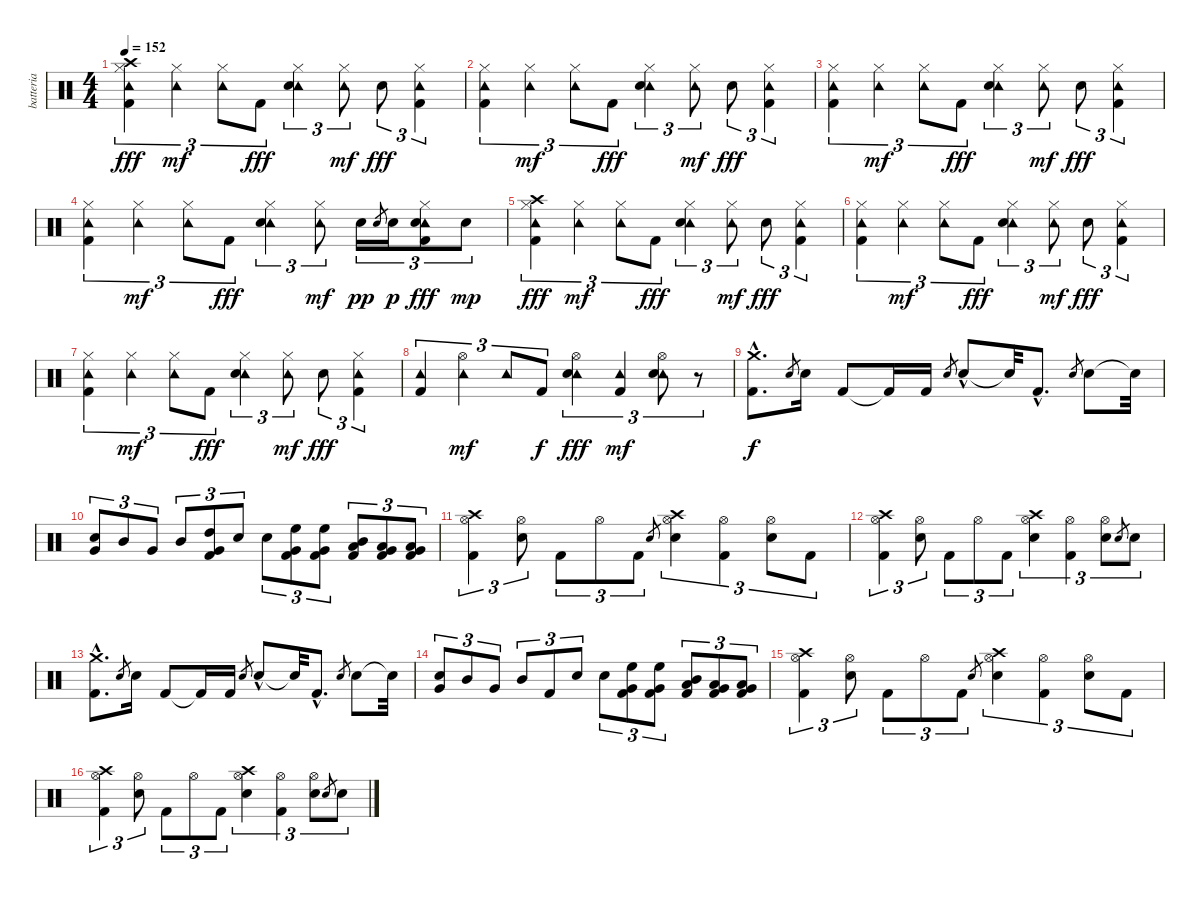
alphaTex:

\track ("batteria" "batteria") {instrument percussion}
\staff {score}
\articulation defaults
\ts (4 4)
\tempo 152
\clef neutral
\ks c
("Hi-Hat (closed)" "Tambourine (hit)" "Crash high (hit)" "Kick (hit) 2").4{tu (3 2) dy fff} ("Hi-Hat (closed)" "Tambourine (hit)").4{tu (3 2) dy mf} ("Hi-Hat (closed)" "Tambourine (hit)").8{tu (3 2)} "Kick (hit) 2".8{tu (3 2) dy fff} ("Hi-Hat (closed)" "Tambourine (hit)" "Electric Snare (hit)").4{tu (3 2)} ("Hi-Hat (closed)" "Tambourine (hit)").8{tu (3 2) dy mf} "Electric Snare (hit)".8{tu (3 2) dy fff} ("Hi-Hat (closed)" "Tambourine (hit)" "Kick (hit) 2").4{tu (3 2)} |
("Hi-Hat (closed)" "Tambourine (hit)" "Kick (hit) 2").4{tu (3 2)} ("Hi-Hat (closed)" "Tambourine (hit)").4{tu (3 2) dy mf} ("Hi-Hat (closed)" "Tambourine (hit)").8{tu (3 2)} "Kick (hit) 2".8{tu (3 2) dy fff} ("Hi-Hat (closed)" "Tambourine (hit)" "Electric Snare (hit)").4{tu (3 2)} ("Hi-Hat (closed)" "Tambourine (hit)").8{tu (3 2) dy mf} "Electric Snare (hit)".8{tu (3 2) dy fff} ("Hi-Hat (closed)" "Tambourine (hit)" "Kick (hit) 2").4{tu (3 2)} |
("Hi-Hat (closed)" "Tambourine (hit)" "Kick (hit) 2").4{tu (3 2)} ("Hi-Hat (closed)" "Tambourine (hit)").4{tu (3 2) dy mf} ("Hi-Hat (closed)" "Tambourine (hit)").8{tu (3 2)} "Kick (hit) 2".8{tu (3 2) dy fff} ("Hi-Hat (closed)" "Tambourine (hit)" "Electric Snare (hit)").4{tu (3 2)} ("Hi-Hat (closed)" "Tambourine (hit)").8{tu (3 2) dy mf} "Electric Snare (hit)".8{tu (3 2) dy fff} ("Hi-Hat (closed)" "Tambourine (hit)" "Kick (hit) 2").4{tu (3 2)} |
("Hi-Hat (closed)" "Tambourine (hit)" "Kick (hit) 2").4{tu (3 2)} ("Hi-Hat (closed)" "Tambourine (hit)").4{tu (3 2) dy mf} ("Hi-Hat (closed)" "Tambourine (hit)").8{tu (3 2)} "Kick (hit) 2".8{tu (3 2) dy fff} ("Hi-Hat (closed)" "Tambourine (hit)" "Electric Snare (hit)").4{tu (3 2)} ("Hi-Hat (closed)" "Tambourine (hit)").8{tu (3 2) dy mf} "Electric Snare (hit)".16{tu (3 2) dy pp} "Electric Snare (hit)".8{gr} "Electric Snare (hit)".16{tu (3 2) dy p} ("Hi-Hat (closed)" "Tambourine (hit)" "Electric Snare (hit)" "Kick (hit) 2").8{tu (3 2) dy fff} "Electric Snare (hit)".8{tu (3 2) dy mp} |
("Hi-Hat (closed)" "Tambourine (hit)" "Crash high (hit)" "Kick (hit) 2").4{tu (3 2) dy fff} ("Hi-Hat (closed)" "Tambourine (hit)").4{tu (3 2) dy mf} ("Hi-Hat (closed)" "Tambourine (hit)").8{tu (3 2)} "Kick (hit) 2".8{tu (3 2) dy fff} ("Hi-Hat (closed)" "Tambourine (hit)" "Electric Snare (hit)").4{tu (3 2)} ("Hi-Hat (closed)" "Tambourine (hit)").8{tu (3 2) dy mf} "Electric Snare (hit)".8{tu (3 2) dy fff} ("Hi-Hat (closed)" "Tambourine (hit)" "Kick (hit) 2").4{tu (3 2)} |
("Hi-Hat (closed)" "Tambourine (hit)" "Kick (hit) 2").4{tu (3 2)} ("Hi-Hat (closed)" "Tambourine (hit)").4{tu (3 2) dy mf} ("Hi-Hat (closed)" "Tambourine (hit)").8{tu (3 2)} "Kick (hit) 2".8{tu (3 2) dy fff} ("Hi-Hat (closed)" "Tambourine (hit)" "Electric Snare (hit)").4{tu (3 2)} ("Hi-Hat (closed)" "Tambourine (hit)").8{tu (3 2) dy mf} "Electric Snare (hit)".8{tu (3 2) dy fff} ("Hi-Hat (closed)" "Tambourine (hit)" "Kick (hit) 2").4{tu (3 2)} |
("Hi-Hat (closed)" "Tambourine (hit)" "Kick (hit) 2").4{tu (3 2)} ("Hi-Hat (closed)" "Tambourine (hit)").4{tu (3 2) dy mf} ("Hi-Hat (closed)" "Tambourine (hit)").8{tu (3 2)} "Kick (hit) 2".8{tu (3 2) dy fff} ("Hi-Hat (closed)" "Tambourine (hit)" "Electric Snare (hit)").4{tu (3 2)} ("Hi-Hat (closed)" "Tambourine (hit)").8{tu (3 2) dy mf} "Electric Snare (hit)".8{tu (3 2) dy fff} ("Hi-Hat (closed)" "Tambourine (hit)" "Kick (hit) 2").4{tu (3 2)} |
("Tambourine (hit)" "Kick (hit) 2").4{tu (3 2)} ("Hi-Hat (open)" "Tambourine (hit)").4{tu (3 2) dy mf} "Tambourine (hit)".8{tu (3 2)} "Kick (hit) 2".8{tu (3 2) dy f} ("Hi-Hat (open)" "Tambourine (hit)" "Electric Snare (hit)").4{tu (3 2) dy fff} ("Tambourine (hit)" "Kick (hit) 2").4{tu (3 2) dy mf} ("Hi-Hat (open)" "Tambourine (hit)" "Electric Snare (hit)").8{tu (3 2)} r.8{tu (3 2)} |
("Crash medium (hit)"{hac} "Kick (hit) 2"{hac}).8{d dy f} "Electric Snare (hit)".8{gr} "Electric Snare (hit)".16 "Kick (hit) 2".8 "Kick (hit) 2"{t}.16 "Kick (hit) 2".16 "Electric Snare (hit)".8{gr} "Electric Snare (hit)"{hac}.8 "Electric Snare (hit)"{t}.32 "Kick (hit) 2"{hac}.8{d} "Electric Snare (hit)".8{gr} "Electric Snare (hit)".8 "Electric Snare (hit)"{t}.32 |
("Very Low Tom (hit)" "Electric Snare (hit)").8{tu (3 2)} "Mid Tom (hit)".8{tu (3 2)} "Very Low Tom (hit)".8{tu (3 2)} "Mid Tom (hit)".8{tu (3 2)} ("Very Low Tom (hit)" "High Tom (hit)" "Kick (hit) 2").8{tu (3 2)} "Electric Snare (hit)".8{tu (3 2)} "Electric Snare (hit)".8{tu (3 2)} ("Very Low Tom (hit)" "High Floor Tom (hit)" "Kick (hit) 2").8{tu (3 2)} ("Very Low Tom (hit)" "High Floor Tom (hit)" "Kick (hit) 2").8{tu (3 2)} ("Low Tom (hit)" "Mid Tom (hit)" "Kick (hit) 2").8{tu (3 2)} ("Low Tom (hit)" "Very Low Tom (hit)" "Kick (hit) 2").8{tu (3 2)} ("Low Floor Tom (hit)" "Very Low Tom (hit)" "Kick (hit) 2").8{tu (3 2)} |
("Hi-Hat (open)" "Crash high (hit)" "Kick (hit) 2").4{tu (3 2)} ("Hi-Hat (open)" "Electric Snare (hit)").8{tu (3 2)} "Kick (hit) 2".8{tu (3 2)} "Hi-Hat (open)".8{tu (3 2)} "Kick (hit) 2".8{tu (3 2)} "Electric Snare (hit)".8{gr} ("Hi-Hat (open)" "Crash high (hit)" "Electric Snare (hit)").4{tu (3 2)} ("Hi-Hat (open)" "Kick (hit) 2").4{tu (3 2)} ("Hi-Hat (open)" "Electric Snare (hit)").8{tu (3 2)} "Kick (hit) 2".8{tu (3 2)} |
("Hi-Hat (open)" "Crash high (hit)" "Kick (hit) 2").4{tu (3 2)} ("Hi-Hat (open)" "Electric Snare (hit)").8{tu (3 2)} "Kick (hit) 2".8{tu (3 2)} "Hi-Hat (open)".8{tu (3 2)} "Kick (hit) 2".8{tu (3 2)} ("Hi-Hat (open)" "Crash high (hit)" "Electric Snare (hit)").4{tu (3 2)} ("Hi-Hat (open)" "Kick (hit) 2").4{tu (3 2)} ("Hi-Hat (open)" "Electric Snare (hit)").8{tu (3 2)} "Electric Snare (hit)".8{gr} "Electric Snare (hit)".8{tu (3 2)} |
("Crash medium (hit)"{hac} "Kick (hit) 2"{hac}).8{d} "Electric Snare (hit)".8{gr} "Electric Snare (hit)".16 "Kick (hit) 2".8 "Kick (hit) 2"{t}.16 "Kick (hit) 2".16 "Electric Snare (hit)".8{gr} "Electric Snare (hit)"{hac}.8 "Electric Snare (hit)"{t}.32 "Kick (hit) 2"{hac}.8{d} "Electric Snare (hit)".8{gr} "Electric Snare (hit)".8 "Electric Snare (hit)"{t}.32 |
("Very Low Tom (hit)" "Electric Snare (hit)").8{tu (3 2)} "Mid Tom (hit)".8{tu (3 2)} "Very Low Tom (hit)".8{tu (3 2)} "Mid Tom (hit)".8{tu (3 2)} "Kick (hit) 2".8{tu (3 2)} "Electric Snare (hit)".8{tu (3 2)} "Electric Snare (hit)".8{tu (3 2)} ("Very Low Tom (hit)" "High Floor Tom (hit)" "Kick (hit) 2").8{tu (3 2)} ("Very Low Tom (hit)" "High Floor Tom (hit)" "Kick (hit) 2").8{tu (3 2)} ("Low Tom (hit)" "Mid Tom (hit)" "Kick (hit) 2").8{tu (3 2)} ("Low Tom (hit)" "Very Low Tom (hit)" "Kick (hit) 2").8{tu (3 2)} ("Low Floor Tom (hit)" "Very Low Tom (hit)" "Kick (hit) 2").8{tu (3 2)} |
("Hi-Hat (open)" "Crash high (hit)" "Kick (hit) 2").4{tu (3 2)} ("Hi-Hat (open)" "Electric Snare (hit)").8{tu (3 2)} "Kick (hit) 2".8{tu (3 2)} "Hi-Hat (open)".8{tu (3 2)} "Kick (hit) 2".8{tu (3 2)} "Electric Snare (hit)".8{gr} ("Hi-Hat (open)" "Crash high (hit)" "Electric Snare (hit)").4{tu (3 2)} ("Hi-Hat (open)" "Kick (hit) 2").4{tu (3 2)} ("Hi-Hat (open)" "Electric Snare (hit)").8{tu (3 2)} "Kick (hit) 2".8{tu (3 2)} |
("Hi-Hat (open)" "Crash high (hit)" "Kick (hit) 2").4{tu (3 2)} ("Hi-Hat (open)" "Electric Snare (hit)").8{tu (3 2)} "Kick (hit) 2".8{tu (3 2)} "Hi-Hat (open)".8{tu (3 2)} "Kick (hit) 2".8{tu (3 2)} ("Hi-Hat (open)" "Crash high (hit)" "Electric Snare (hit)").4{tu (3 2)} ("Hi-Hat (open)" "Kick (hit) 2").4{tu (3 2)} ("Hi-Hat (open)" "Electric Snare (hit)").8{tu (3 2)} "Electric Snare (hit)".8{gr} "Electric Snare (hit)".8{tu (3 2)}
